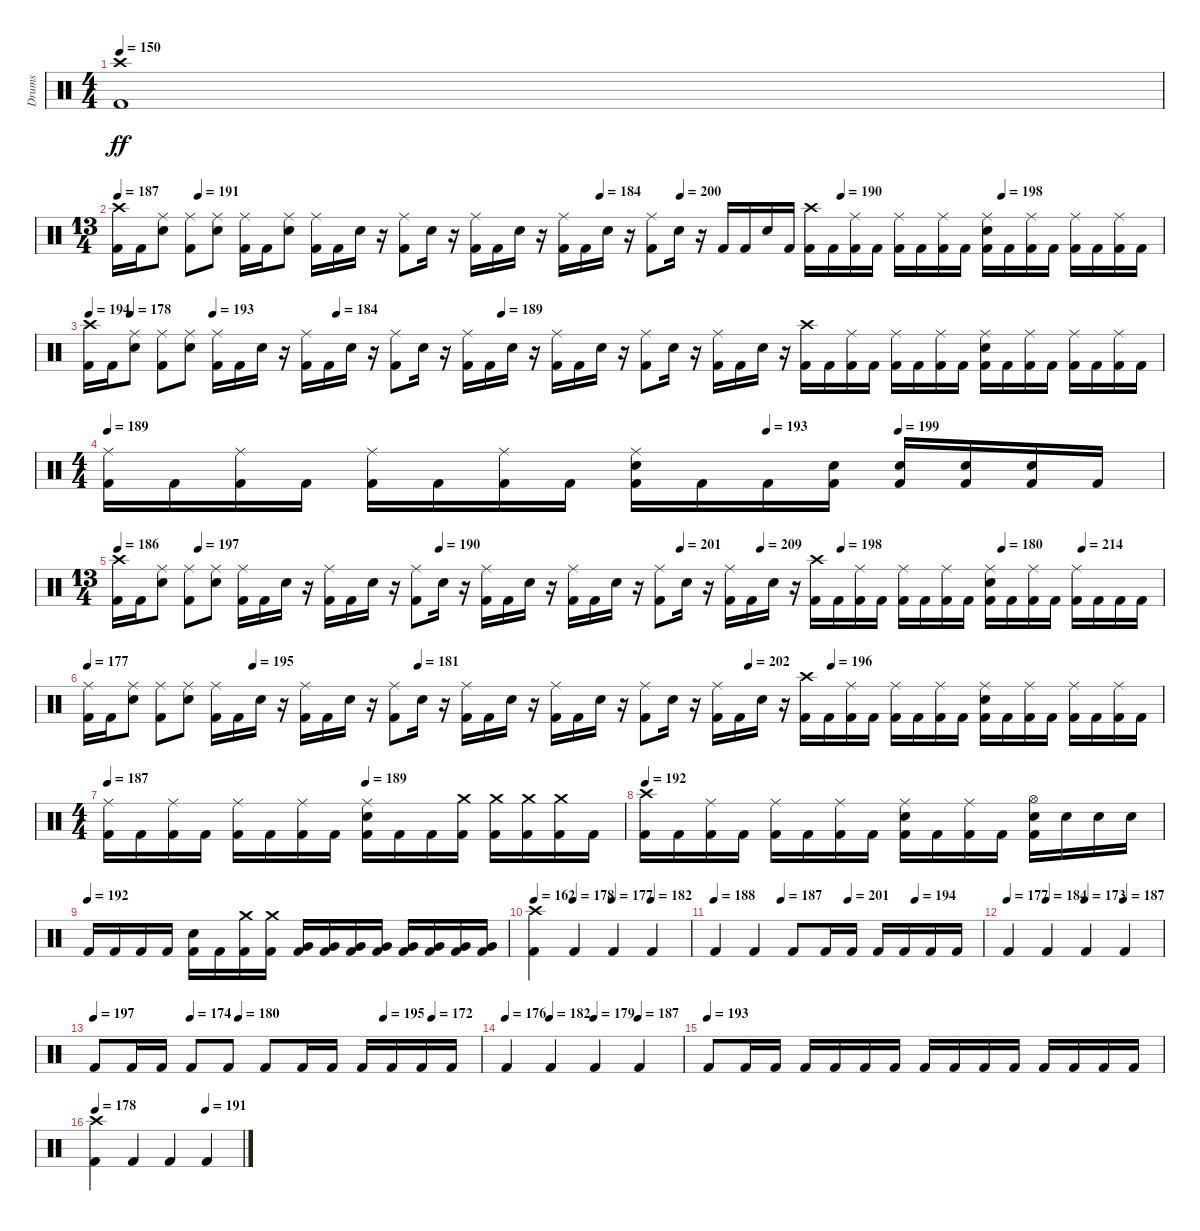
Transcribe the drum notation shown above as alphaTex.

\track ("Drums" "Drums") {instrument percussion}
\staff {score}
\articulation defaults
\ts (4 4)
\tempo 150
\clef neutral
\ks c
("Kick (hit) 2" "Crash high (hit)").1{dy ff} |
\ts (13 4)
\tempo 187
\tempo (191 0.07692307692307693)
\tempo (184 0.46153846153846156)
\tempo (200 0.5384615384615384)
\tempo (190 0.6923076923076923)
\tempo (198 0.8461538461538461)
("Kick (hit) 2" "Crash high (hit)").16 "Kick (hit) 2".16 ("Snare (hit) 2" "Ride (middle)").8 ("Kick (hit) 2" "Ride (middle)").8 ("Snare (hit) 2" "Ride (middle)").8 ("Kick (hit) 2" "Ride (middle)").16 "Kick (hit) 2".16 ("Snare (hit) 2" "Ride (middle)").8 ("Kick (hit) 2" "Ride (middle)").16 "Kick (hit) 2".16 "Snare (hit) 2".16 r.16 ("Kick (hit) 2" "Ride (middle)").8 "Snare (hit) 2".16 r.16 ("Kick (hit) 2" "Ride (middle)").16 "Kick (hit) 2".16 "Snare (hit) 2".16 r.16 ("Kick (hit) 2" "Ride (middle)").16 "Kick (hit) 2".16 "Snare (hit) 2".16 r.16 ("Kick (hit) 2" "Ride (middle)").8 "Snare (hit) 2".16 r.16 "Kick (hit) 2".16 "Kick (hit) 2".16 "Snare (hit) 2".16 "Kick (hit) 2".16 ("Kick (hit) 2" "Crash high (hit)").16 "Kick (hit) 2".16 ("Kick (hit) 2" "Ride (middle)").16 "Kick (hit) 2".16 ("Kick (hit) 2" "Ride (middle)").16 "Kick (hit) 2".16 ("Kick (hit) 2" "Ride (middle)").16 "Kick (hit) 2".16 ("Kick (hit) 2" "Snare (hit) 2" "Ride (middle)").16 "Kick (hit) 2".16 ("Kick (hit) 2" "Ride (middle)").16 "Kick (hit) 2".16 ("Kick (hit) 2" "Ride (middle)").16 "Kick (hit) 2".16 ("Kick (hit) 2" "Ride (middle)").16 "Kick (hit) 2".16 |
\tempo 194
\tempo (178 0.038461538461538464)
\tempo (193 0.11538461538461539)
\tempo (184 0.23076923076923078)
\tempo (189 0.38461538461538464)
("Kick (hit) 2" "Crash high (hit)").16 "Kick (hit) 2".16 ("Snare (hit) 2" "Ride (middle)").8 ("Kick (hit) 2" "Ride (middle)").8 ("Snare (hit) 2" "Ride (middle)").8 ("Kick (hit) 2" "Ride (middle)").16 "Kick (hit) 2".16 "Snare (hit) 2".16 r.16 ("Kick (hit) 2" "Ride (middle)").16 "Kick (hit) 2".16 "Snare (hit) 2".16 r.16 ("Kick (hit) 2" "Ride (middle)").8 "Snare (hit) 2".16 r.16 ("Kick (hit) 2" "Ride (middle)").16 "Kick (hit) 2".16 "Snare (hit) 2".16 r.16 ("Kick (hit) 2" "Ride (middle)").16 "Kick (hit) 2".16 "Snare (hit) 2".16 r.16 ("Kick (hit) 2" "Ride (middle)").8 "Snare (hit) 2".16 r.16 ("Kick (hit) 2" "Ride (middle)").16 "Kick (hit) 2".16 "Snare (hit) 2".16 r.16 ("Kick (hit) 2" "Crash high (hit)").16 "Kick (hit) 2".16 ("Kick (hit) 2" "Ride (middle)").16 "Kick (hit) 2".16 ("Kick (hit) 2" "Ride (middle)").16 "Kick (hit) 2".16 ("Kick (hit) 2" "Ride (middle)").16 "Kick (hit) 2".16 ("Kick (hit) 2" "Snare (hit) 2" "Ride (middle)").16 "Kick (hit) 2".16 ("Kick (hit) 2" "Ride (middle)").16 "Kick (hit) 2".16 ("Kick (hit) 2" "Ride (middle)").16 "Kick (hit) 2".16 ("Kick (hit) 2" "Ride (middle)").16 "Kick (hit) 2".16 |
\ts (4 4)
\tempo 189
\tempo (193 0.625)
\tempo (199 0.75)
("Ride (middle)" "Kick (hit) 2").16 "Kick (hit) 2".16 ("Kick (hit) 2" "Ride (middle)").16 "Kick (hit) 2".16 ("Kick (hit) 2" "Ride (middle)").16 "Kick (hit) 2".16 ("Kick (hit) 2" "Ride (middle)").16 "Kick (hit) 2".16 ("Kick (hit) 2" "Snare (hit) 2" "Ride (middle)").16 "Kick (hit) 2".16 "Kick (hit) 2".16 ("Kick (hit) 2" "Snare (hit) 2").16 ("Kick (hit) 2" "Snare (hit) 2").16 ("Kick (hit) 2" "Snare (hit) 2").16 ("Kick (hit) 2" "Snare (hit) 2").16 "Kick (hit) 2".16 |
\ts (13 4)
\tempo 186
\tempo (197 0.07692307692307693)
\tempo (190 0.3076923076923077)
\tempo (201 0.5384615384615384)
\tempo (209 0.6153846153846154)
\tempo (198 0.6923076923076923)
\tempo (180 0.8461538461538461)
\tempo (214 0.9230769230769231)
("Kick (hit) 2" "Crash high (hit)").16 "Kick (hit) 2".16 ("Snare (hit) 2" "Ride (middle)").8 ("Kick (hit) 2" "Ride (middle)").8 ("Snare (hit) 2" "Ride (middle)").8 ("Kick (hit) 2" "Ride (middle)").16 "Kick (hit) 2".16 "Snare (hit) 2".16 r.16 ("Kick (hit) 2" "Ride (middle)").16 "Kick (hit) 2".16 "Snare (hit) 2".16 r.16 ("Kick (hit) 2" "Ride (middle)").8 "Snare (hit) 2".16 r.16 ("Kick (hit) 2" "Ride (middle)").16 "Kick (hit) 2".16 "Snare (hit) 2".16 r.16 ("Kick (hit) 2" "Ride (middle)").16 "Kick (hit) 2".16 "Snare (hit) 2".16 r.16 ("Kick (hit) 2" "Ride (middle)").8 "Snare (hit) 2".16 r.16 ("Kick (hit) 2" "Ride (middle)").16 "Kick (hit) 2".16 "Snare (hit) 2".16 r.16 ("Kick (hit) 2" "Crash high (hit)").16 "Kick (hit) 2".16 ("Kick (hit) 2" "Ride (middle)").16 "Kick (hit) 2".16 ("Kick (hit) 2" "Ride (middle)").16 "Kick (hit) 2".16 ("Kick (hit) 2" "Ride (middle)").16 "Kick (hit) 2".16 ("Kick (hit) 2" "Snare (hit) 2" "Ride (middle)").16 "Kick (hit) 2".16 ("Kick (hit) 2" "Ride (middle)").16 "Kick (hit) 2".16 ("Kick (hit) 2" "Ride (middle)").16 "Kick (hit) 2".16 "Kick (hit) 2".16 "Kick (hit) 2".16 |
\tempo 177
\tempo (195 0.15384615384615385)
\tempo (181 0.3076923076923077)
\tempo (202 0.6153846153846154)
\tempo (196 0.6923076923076923)
("Kick (hit) 2" "Ride (middle)").16 "Kick (hit) 2".16 ("Snare (hit) 2" "Ride (middle)").8 ("Kick (hit) 2" "Ride (middle)").8 ("Snare (hit) 2" "Ride (middle)").8 ("Kick (hit) 2" "Ride (middle)").16 "Kick (hit) 2".16 "Snare (hit) 2".16 r.16 ("Kick (hit) 2" "Ride (middle)").16 "Kick (hit) 2".16 "Snare (hit) 2".16 r.16 ("Kick (hit) 2" "Ride (middle)").8 "Snare (hit) 2".16 r.16 ("Kick (hit) 2" "Ride (middle)").16 "Kick (hit) 2".16 "Snare (hit) 2".16 r.16 ("Kick (hit) 2" "Ride (middle)").16 "Kick (hit) 2".16 "Snare (hit) 2".16 r.16 ("Kick (hit) 2" "Ride (middle)").8 "Snare (hit) 2".16 r.16 ("Kick (hit) 2" "Ride (middle)").16 "Kick (hit) 2".16 "Snare (hit) 2".16 r.16 ("Kick (hit) 2" "Crash high (hit)").16 "Kick (hit) 2".16 ("Kick (hit) 2" "Ride (middle)").16 "Kick (hit) 2".16 ("Kick (hit) 2" "Ride (middle)").16 "Kick (hit) 2".16 ("Kick (hit) 2" "Ride (middle)").16 "Kick (hit) 2".16 ("Kick (hit) 2" "Snare (hit) 2" "Ride (middle)").16 "Kick (hit) 2".16 ("Kick (hit) 2" "Ride (middle)").16 "Kick (hit) 2".16 ("Kick (hit) 2" "Ride (middle)").16 "Kick (hit) 2".16 ("Kick (hit) 2" "Ride (middle)").16 "Kick (hit) 2".16 |
\ts (4 4)
\tempo 187
\tempo (189 0.5)
("Ride (middle)" "Kick (hit) 2").16 "Kick (hit) 2".16 ("Kick (hit) 2" "Ride (middle)").16 "Kick (hit) 2".16 ("Kick (hit) 2" "Ride (middle)").16 "Kick (hit) 2".16 ("Kick (hit) 2" "Ride (middle)").16 "Kick (hit) 2".16 ("Kick (hit) 2" "Snare (hit) 2" "Ride (middle)").16 "Kick (hit) 2".16 "Kick (hit) 2".16 ("Kick (hit) 2" "Crash medium (hit)").16 ("Kick (hit) 2" "Crash medium (hit)").16 ("Kick (hit) 2" "Crash medium (hit)").16 ("Kick (hit) 2" "Crash medium (hit)").16 "Kick (hit) 2".16 |
\tempo 192
("Kick (hit) 2" "Crash high (hit)").16 "Kick (hit) 2".16 ("Kick (hit) 2" "Ride (middle)").16 "Kick (hit) 2".16 ("Kick (hit) 2" "Ride (middle)").16 "Kick (hit) 2".16 ("Kick (hit) 2" "Ride (middle)").16 "Kick (hit) 2".16 ("Kick (hit) 2" "Snare (hit) 2" "Ride (middle)").16 "Kick (hit) 2".16 ("Kick (hit) 2" "Ride (middle)").16 "Kick (hit) 2".16 ("Kick (hit) 2" "Snare (hit) 2" "Hi-Hat (open)").16 "Snare (hit) 2".16 "Snare (hit) 2".16 "Snare (hit) 2".16 |
\tempo (192)
"Kick (hit) 2".16 "Kick (hit) 2".16 "Kick (hit) 2".16 "Kick (hit) 2".16 ("Kick (hit) 2" "Snare (hit) 2").16 "Kick (hit) 2".16 ("Kick (hit) 2" "Crash medium (hit)").16 ("Kick (hit) 2" "Crash medium (hit)").16 ("Kick (hit) 2" "Very Low Tom (hit)").16 ("Kick (hit) 2" "Very Low Tom (hit)").16 ("Kick (hit) 2" "Very Low Tom (hit)").16 ("Kick (hit) 2" "Very Low Tom (hit)").16 ("Kick (hit) 2" "Very Low Tom (hit)").16 ("Kick (hit) 2" "Very Low Tom (hit)").16 ("Kick (hit) 2" "Very Low Tom (hit)").16 ("Kick (hit) 2" "Very Low Tom (hit)").16 |
\tempo 162
\tempo (178 0.25)
\tempo (177 0.5)
\tempo (182 0.75)
("Kick (hit) 2" "Crash high (hit)").4 "Kick (hit) 2".4 "Kick (hit) 2".4 "Kick (hit) 2".4 |
\tempo 188
\tempo (187 0.25)
\tempo (201 0.5)
\tempo (194 0.75)
"Kick (hit) 2".4 "Kick (hit) 2".4 "Kick (hit) 2".8 "Kick (hit) 2".16 "Kick (hit) 2".16 "Kick (hit) 2".16 "Kick (hit) 2".16 "Kick (hit) 2".16 "Kick (hit) 2".16 |
\tempo 177
\tempo (184 0.25)
\tempo (173 0.5)
\tempo (187 0.75)
"Kick (hit) 2".4 "Kick (hit) 2".4 "Kick (hit) 2".4 "Kick (hit) 2".4 |
\tempo 197
\tempo (174 0.25)
\tempo (180 0.375)
\tempo (195 0.75)
\tempo (172 0.875)
"Kick (hit) 2".8 "Kick (hit) 2".16 "Kick (hit) 2".16 "Kick (hit) 2".8 "Kick (hit) 2".8 "Kick (hit) 2".8 "Kick (hit) 2".16 "Kick (hit) 2".16 "Kick (hit) 2".16 "Kick (hit) 2".16 "Kick (hit) 2".16 "Kick (hit) 2".16 |
\tempo 176
\tempo (182 0.25)
\tempo (179 0.5)
\tempo (187 0.75)
"Kick (hit) 2".4 "Kick (hit) 2".4 "Kick (hit) 2".4 "Kick (hit) 2".4 |
\tempo (193)
"Kick (hit) 2".8 "Kick (hit) 2".16 "Kick (hit) 2".16 "Kick (hit) 2".16 "Kick (hit) 2".16 "Kick (hit) 2".16 "Kick (hit) 2".16 "Kick (hit) 2".16 "Kick (hit) 2".16 "Kick (hit) 2".16 "Kick (hit) 2".16 "Kick (hit) 2".16 "Kick (hit) 2".16 "Kick (hit) 2".16 "Kick (hit) 2".16 |
\tempo 178
\tempo (191 0.75)
("Kick (hit) 2" "Crash high (hit)").4 "Kick (hit) 2".4 "Kick (hit) 2".4 "Kick (hit) 2".4
